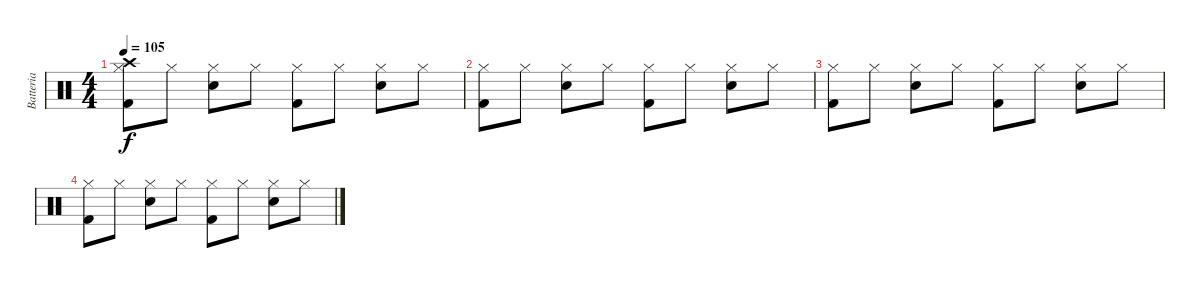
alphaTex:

\track ("Batteria" "Batteria") {instrument percussion}
\staff {score}
\articulation defaults
\ts (4 4)
\tempo 105
\clef neutral
\ks c
("Hi-Hat (closed)" "Kick (hit) 2" "Crash high (hit)").8{dy f} "Hi-Hat (closed)".8 ("Hi-Hat (closed)" "Snare (hit) 2").8 "Hi-Hat (closed)".8 ("Hi-Hat (closed)" "Kick (hit) 2").8 "Hi-Hat (closed)".8 ("Hi-Hat (closed)" "Snare (hit) 2").8 "Hi-Hat (closed)".8 |
("Hi-Hat (closed)" "Kick (hit) 2").8 "Hi-Hat (closed)".8 ("Hi-Hat (closed)" "Snare (hit) 2").8 "Hi-Hat (closed)".8 ("Hi-Hat (closed)" "Kick (hit) 2").8 "Hi-Hat (closed)".8 ("Hi-Hat (closed)" "Snare (hit) 2").8 "Hi-Hat (closed)".8 |
("Hi-Hat (closed)" "Kick (hit) 2").8 "Hi-Hat (closed)".8 ("Hi-Hat (closed)" "Snare (hit) 2").8 "Hi-Hat (closed)".8 ("Hi-Hat (closed)" "Kick (hit) 2").8 "Hi-Hat (closed)".8 ("Hi-Hat (closed)" "Snare (hit) 2").8 "Hi-Hat (closed)".8 |
("Hi-Hat (closed)" "Kick (hit) 2").8 "Hi-Hat (closed)".8 ("Hi-Hat (closed)" "Snare (hit) 2").8 "Hi-Hat (closed)".8 ("Hi-Hat (closed)" "Kick (hit) 2").8 "Hi-Hat (closed)".8 ("Hi-Hat (closed)" "Snare (hit) 2").8 "Hi-Hat (closed)".8
